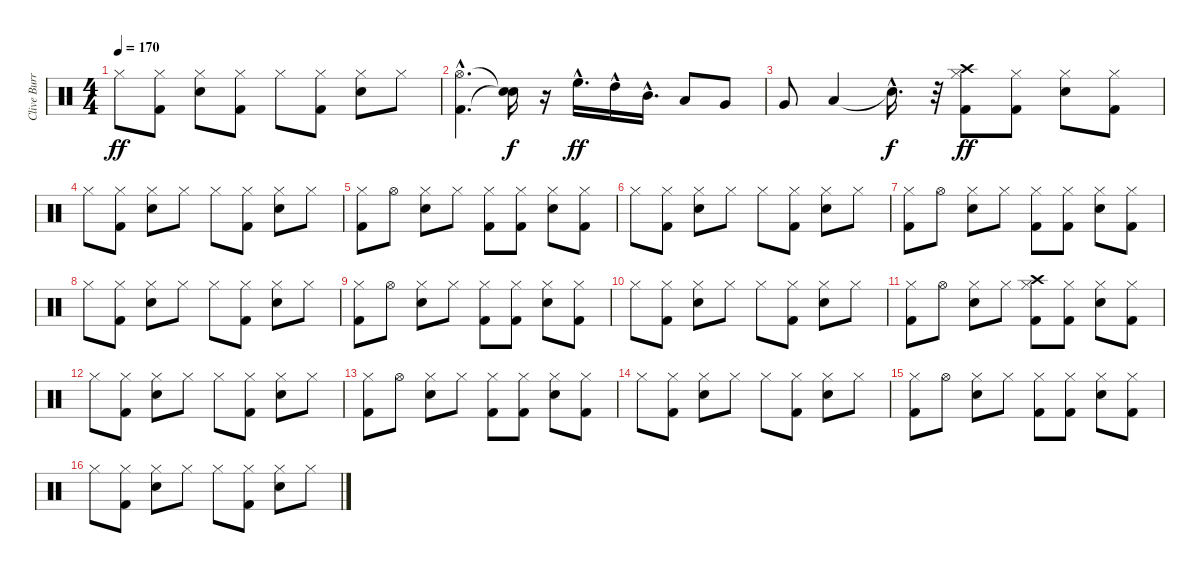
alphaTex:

\track ("Clive Burr" "Clive Burr") {instrument percussion}
\staff {score}
\articulation defaults
\ts (4 4)
\tempo 170
\clef neutral
\ks c "Hi-Hat (closed)".8{dy ff}
("Kick (hit) 2" "Hi-Hat (closed)").8 ("Snare (hit) 2" "Hi-Hat (closed)").8 ("Kick (hit) 2" "Hi-Hat (closed)").8 "Hi-Hat (closed)".8 ("Kick (hit) 2" "Hi-Hat (closed)").8 ("Snare (hit) 2" "Hi-Hat (closed)").8 "Hi-Hat (closed)".8 |
("Kick (hit) 2"{hac} "Hi-Hat (open)"{hac}).4{d} ("Snare (hit)"{t} "Snare (hit)"{t}).16{dy f} r.16 "High Floor Tom (hit)"{hac}.16{d dy ff} "High Tom (hit)"{hac}.16 "Mid Tom (hit)"{hac}.16{d} "Low Tom (hit)".8 "Very Low Tom (hit)".8 |
"Very Low Tom (hit)".8 "Low Floor Tom (hit)".4 "Snare (hit)"{hac t}.16{d dy f} r.32 ("Kick (hit) 2" "Hi-Hat (closed)" "Crash high (hit)").8{dy ff} ("Kick (hit) 2" "Hi-Hat (closed)").8 ("Snare (hit) 2" "Hi-Hat (closed)").8 ("Kick (hit) 2" "Hi-Hat (closed)").8 |
"Hi-Hat (closed)".8 ("Kick (hit) 2" "Hi-Hat (closed)").8 ("Snare (hit) 2" "Hi-Hat (closed)").8 "Hi-Hat (closed)".8 "Hi-Hat (closed)".8 ("Kick (hit) 2" "Hi-Hat (closed)").8 ("Snare (hit) 2" "Hi-Hat (closed)").8 "Hi-Hat (closed)".8 |
("Kick (hit) 2" "Hi-Hat (closed)").8 "Hi-Hat (open)".8 ("Snare (hit) 2" "Hi-Hat (closed)").8 "Hi-Hat (closed)".8 ("Kick (hit) 2" "Hi-Hat (closed)").8 ("Kick (hit) 2" "Hi-Hat (closed)").8 ("Snare (hit) 2" "Hi-Hat (closed)").8 ("Kick (hit) 2" "Hi-Hat (closed)").8 |
"Hi-Hat (closed)".8 ("Kick (hit) 2" "Hi-Hat (closed)").8 ("Snare (hit) 2" "Hi-Hat (closed)").8 "Hi-Hat (closed)".8 "Hi-Hat (closed)".8 ("Kick (hit) 2" "Hi-Hat (closed)").8 ("Snare (hit) 2" "Hi-Hat (closed)").8 "Hi-Hat (closed)".8 |
("Kick (hit) 2" "Hi-Hat (closed)").8 "Hi-Hat (open)".8 ("Snare (hit) 2" "Hi-Hat (closed)").8 "Hi-Hat (closed)".8 ("Kick (hit) 2" "Hi-Hat (closed)").8 ("Kick (hit) 2" "Hi-Hat (closed)").8 ("Snare (hit) 2" "Hi-Hat (closed)").8 ("Kick (hit) 2" "Hi-Hat (closed)").8 |
"Hi-Hat (closed)".8 ("Kick (hit) 2" "Hi-Hat (closed)").8 ("Snare (hit) 2" "Hi-Hat (closed)").8 "Hi-Hat (closed)".8 "Hi-Hat (closed)".8 ("Kick (hit) 2" "Hi-Hat (closed)").8 ("Snare (hit) 2" "Hi-Hat (closed)").8 "Hi-Hat (closed)".8 |
("Kick (hit) 2" "Hi-Hat (closed)").8 "Hi-Hat (open)".8 ("Snare (hit) 2" "Hi-Hat (closed)").8 "Hi-Hat (closed)".8 ("Kick (hit) 2" "Hi-Hat (closed)").8 ("Kick (hit) 2" "Hi-Hat (closed)").8 ("Snare (hit) 2" "Hi-Hat (closed)").8 ("Kick (hit) 2" "Hi-Hat (closed)").8 |
"Hi-Hat (closed)".8 ("Kick (hit) 2" "Hi-Hat (closed)").8 ("Snare (hit) 2" "Hi-Hat (closed)").8 "Hi-Hat (closed)".8 "Hi-Hat (closed)".8 ("Kick (hit) 2" "Hi-Hat (closed)").8 ("Snare (hit) 2" "Hi-Hat (closed)").8 "Hi-Hat (closed)".8 |
("Kick (hit) 2" "Hi-Hat (closed)").8 "Hi-Hat (open)".8 ("Snare (hit) 2" "Hi-Hat (closed)").8 "Hi-Hat (closed)".8 ("Kick (hit) 2" "Hi-Hat (closed)" "Crash high (hit)").8 ("Kick (hit) 2" "Hi-Hat (closed)").8 ("Snare (hit) 2" "Hi-Hat (closed)").8 ("Kick (hit) 2" "Hi-Hat (closed)").8 |
"Hi-Hat (closed)".8 ("Kick (hit) 2" "Hi-Hat (closed)").8 ("Snare (hit) 2" "Hi-Hat (closed)").8 "Hi-Hat (closed)".8 "Hi-Hat (closed)".8 ("Kick (hit) 2" "Hi-Hat (closed)").8 ("Snare (hit) 2" "Hi-Hat (closed)").8 "Hi-Hat (closed)".8 |
("Kick (hit) 2" "Hi-Hat (closed)").8 "Hi-Hat (open)".8 ("Snare (hit) 2" "Hi-Hat (closed)").8 "Hi-Hat (closed)".8 ("Kick (hit) 2" "Hi-Hat (closed)").8 ("Kick (hit) 2" "Hi-Hat (closed)").8 ("Snare (hit) 2" "Hi-Hat (closed)").8 ("Kick (hit) 2" "Hi-Hat (closed)").8 |
"Hi-Hat (closed)".8 ("Kick (hit) 2" "Hi-Hat (closed)").8 ("Snare (hit) 2" "Hi-Hat (closed)").8 "Hi-Hat (closed)".8 "Hi-Hat (closed)".8 ("Kick (hit) 2" "Hi-Hat (closed)").8 ("Snare (hit) 2" "Hi-Hat (closed)").8 "Hi-Hat (closed)".8 |
("Kick (hit) 2" "Hi-Hat (closed)").8 "Hi-Hat (open)".8 ("Snare (hit) 2" "Hi-Hat (closed)").8 "Hi-Hat (closed)".8 ("Kick (hit) 2" "Hi-Hat (closed)").8 ("Kick (hit) 2" "Hi-Hat (closed)").8 ("Snare (hit) 2" "Hi-Hat (closed)").8 ("Kick (hit) 2" "Hi-Hat (closed)").8 |
"Hi-Hat (closed)".8 ("Kick (hit) 2" "Hi-Hat (closed)").8 ("Snare (hit) 2" "Hi-Hat (closed)").8 "Hi-Hat (closed)".8 "Hi-Hat (closed)".8 ("Kick (hit) 2" "Hi-Hat (closed)").8 ("Snare (hit) 2" "Hi-Hat (closed)").8 "Hi-Hat (closed)".8
